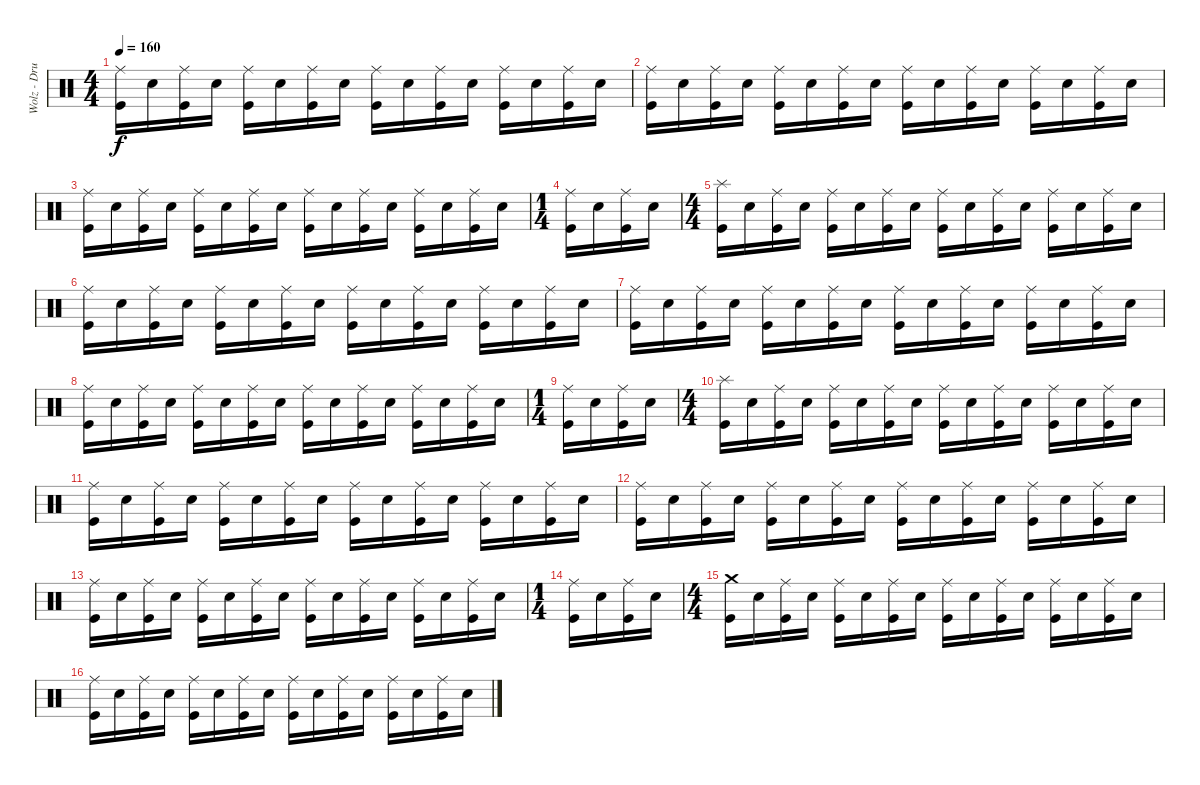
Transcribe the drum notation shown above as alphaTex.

\track ("Wolz - Drums" "Wolz - Dru") {instrument percussion}
\staff {score}
\articulation defaults
\ts (4 4)
\tempo 160
\clef neutral
\ks c
("Ride (middle)" "Kick (hit)").16{dy f} "Electric Snare (hit)".16 ("Ride (middle)" "Kick (hit)").16 "Electric Snare (hit)".16 ("Ride (middle)" "Kick (hit)").16 "Electric Snare (hit)".16 ("Ride (middle)" "Kick (hit)").16 "Electric Snare (hit)".16 ("Ride (middle)" "Kick (hit)").16 "Electric Snare (hit)".16 ("Ride (middle)" "Kick (hit)").16 "Electric Snare (hit)".16 ("Ride (middle)" "Kick (hit)").16 "Electric Snare (hit)".16 ("Ride (middle)" "Kick (hit)").16 "Electric Snare (hit)".16 |
("Ride (middle)" "Kick (hit)").16 "Electric Snare (hit)".16 ("Ride (middle)" "Kick (hit)").16 "Electric Snare (hit)".16 ("Ride (middle)" "Kick (hit)").16 "Electric Snare (hit)".16 ("Ride (middle)" "Kick (hit)").16 "Electric Snare (hit)".16 ("Ride (middle)" "Kick (hit)").16 "Electric Snare (hit)".16 ("Ride (middle)" "Kick (hit)").16 "Electric Snare (hit)".16 ("Ride (middle)" "Kick (hit)").16 "Electric Snare (hit)".16 ("Ride (middle)" "Kick (hit)").16 "Electric Snare (hit)".16 |
("Ride (middle)" "Kick (hit)").16 "Electric Snare (hit)".16 ("Ride (middle)" "Kick (hit)").16 "Electric Snare (hit)".16 ("Ride (middle)" "Kick (hit)").16 "Electric Snare (hit)".16 ("Ride (middle)" "Kick (hit)").16 "Electric Snare (hit)".16 ("Ride (middle)" "Kick (hit)").16 "Electric Snare (hit)".16 ("Ride (middle)" "Kick (hit)").16 "Electric Snare (hit)".16 ("Ride (middle)" "Kick (hit)").16 "Electric Snare (hit)".16 ("Ride (middle)" "Kick (hit)").16 "Electric Snare (hit)".16 |
\ts (1 4)
("Ride (middle)" "Kick (hit)").16 "Electric Snare (hit)".16 ("Ride (middle)" "Kick (hit)").16 "Electric Snare (hit)".16 |
\ts (4 4)
("Splash (hit)" "Kick (hit)").16 "Electric Snare (hit)".16 ("Ride (middle)" "Kick (hit)").16 "Electric Snare (hit)".16 ("Ride (middle)" "Kick (hit)").16 "Electric Snare (hit)".16 ("Ride (middle)" "Kick (hit)").16 "Electric Snare (hit)".16 ("Ride (middle)" "Kick (hit)").16 "Electric Snare (hit)".16 ("Ride (middle)" "Kick (hit)").16 "Electric Snare (hit)".16 ("Ride (middle)" "Kick (hit)").16 "Electric Snare (hit)".16 ("Ride (middle)" "Kick (hit)").16 "Electric Snare (hit)".16 |
("Ride (middle)" "Kick (hit)").16 "Electric Snare (hit)".16 ("Ride (middle)" "Kick (hit)").16 "Electric Snare (hit)".16 ("Ride (middle)" "Kick (hit)").16 "Electric Snare (hit)".16 ("Ride (middle)" "Kick (hit)").16 "Electric Snare (hit)".16 ("Ride (middle)" "Kick (hit)").16 "Electric Snare (hit)".16 ("Ride (middle)" "Kick (hit)").16 "Electric Snare (hit)".16 ("Ride (middle)" "Kick (hit)").16 "Electric Snare (hit)".16 ("Ride (middle)" "Kick (hit)").16 "Electric Snare (hit)".16 |
("Ride (middle)" "Kick (hit)").16 "Electric Snare (hit)".16 ("Ride (middle)" "Kick (hit)").16 "Electric Snare (hit)".16 ("Ride (middle)" "Kick (hit)").16 "Electric Snare (hit)".16 ("Ride (middle)" "Kick (hit)").16 "Electric Snare (hit)".16 ("Ride (middle)" "Kick (hit)").16 "Electric Snare (hit)".16 ("Ride (middle)" "Kick (hit)").16 "Electric Snare (hit)".16 ("Ride (middle)" "Kick (hit)").16 "Electric Snare (hit)".16 ("Ride (middle)" "Kick (hit)").16 "Electric Snare (hit)".16 |
("Ride (middle)" "Kick (hit)").16 "Electric Snare (hit)".16 ("Ride (middle)" "Kick (hit)").16 "Electric Snare (hit)".16 ("Ride (middle)" "Kick (hit)").16 "Electric Snare (hit)".16 ("Ride (middle)" "Kick (hit)").16 "Electric Snare (hit)".16 ("Ride (middle)" "Kick (hit)").16 "Electric Snare (hit)".16 ("Ride (middle)" "Kick (hit)").16 "Electric Snare (hit)".16 ("Ride (middle)" "Kick (hit)").16 "Electric Snare (hit)".16 ("Ride (middle)" "Kick (hit)").16 "Electric Snare (hit)".16 |
\ts (1 4)
("Ride (middle)" "Kick (hit)").16 "Electric Snare (hit)".16 ("Ride (middle)" "Kick (hit)").16 "Electric Snare (hit)".16 |
\ts (4 4)
("Splash (hit)" "Kick (hit)").16 "Electric Snare (hit)".16 ("Ride (middle)" "Kick (hit)").16 "Electric Snare (hit)".16 ("Ride (middle)" "Kick (hit)").16 "Electric Snare (hit)".16 ("Ride (middle)" "Kick (hit)").16 "Electric Snare (hit)".16 ("Ride (middle)" "Kick (hit)").16 "Electric Snare (hit)".16 ("Ride (middle)" "Kick (hit)").16 "Electric Snare (hit)".16 ("Ride (middle)" "Kick (hit)").16 "Electric Snare (hit)".16 ("Ride (middle)" "Kick (hit)").16 "Electric Snare (hit)".16 |
("Ride (middle)" "Kick (hit)").16 "Electric Snare (hit)".16 ("Ride (middle)" "Kick (hit)").16 "Electric Snare (hit)".16 ("Ride (middle)" "Kick (hit)").16 "Electric Snare (hit)".16 ("Ride (middle)" "Kick (hit)").16 "Electric Snare (hit)".16 ("Ride (middle)" "Kick (hit)").16 "Electric Snare (hit)".16 ("Ride (middle)" "Kick (hit)").16 "Electric Snare (hit)".16 ("Ride (middle)" "Kick (hit)").16 "Electric Snare (hit)".16 ("Ride (middle)" "Kick (hit)").16 "Electric Snare (hit)".16 |
("Ride (middle)" "Kick (hit)").16 "Electric Snare (hit)".16 ("Ride (middle)" "Kick (hit)").16 "Electric Snare (hit)".16 ("Ride (middle)" "Kick (hit)").16 "Electric Snare (hit)".16 ("Ride (middle)" "Kick (hit)").16 "Electric Snare (hit)".16 ("Ride (middle)" "Kick (hit)").16 "Electric Snare (hit)".16 ("Ride (middle)" "Kick (hit)").16 "Electric Snare (hit)".16 ("Ride (middle)" "Kick (hit)").16 "Electric Snare (hit)".16 ("Ride (middle)" "Kick (hit)").16 "Electric Snare (hit)".16 |
("Ride (middle)" "Kick (hit)").16 "Electric Snare (hit)".16 ("Ride (middle)" "Kick (hit)").16 "Electric Snare (hit)".16 ("Ride (middle)" "Kick (hit)").16 "Electric Snare (hit)".16 ("Ride (middle)" "Kick (hit)").16 "Electric Snare (hit)".16 ("Ride (middle)" "Kick (hit)").16 "Electric Snare (hit)".16 ("Ride (middle)" "Kick (hit)").16 "Electric Snare (hit)".16 ("Ride (middle)" "Kick (hit)").16 "Electric Snare (hit)".16 ("Ride (middle)" "Kick (hit)").16 "Electric Snare (hit)".16 |
\ts (1 4)
("Ride (middle)" "Kick (hit)").16 "Electric Snare (hit)".16 ("Ride (middle)" "Kick (hit)").16 "Electric Snare (hit)".16 |
\ts (4 4)
("Crash medium (hit)" "Kick (hit)").16 "Electric Snare (hit)".16 ("Ride (middle)" "Kick (hit)").16 "Electric Snare (hit)".16 ("Ride (middle)" "Kick (hit)").16 "Electric Snare (hit)".16 ("Ride (middle)" "Kick (hit)").16 "Electric Snare (hit)".16 ("Ride (middle)" "Kick (hit)").16 "Electric Snare (hit)".16 ("Ride (middle)" "Kick (hit)").16 "Electric Snare (hit)".16 ("Ride (middle)" "Kick (hit)").16 "Electric Snare (hit)".16 ("Ride (middle)" "Kick (hit)").16 "Electric Snare (hit)".16 |
("Ride (middle)" "Kick (hit)").16 "Electric Snare (hit)".16 ("Ride (middle)" "Kick (hit)").16 "Electric Snare (hit)".16 ("Ride (middle)" "Kick (hit)").16 "Electric Snare (hit)".16 ("Ride (middle)" "Kick (hit)").16 "Electric Snare (hit)".16 ("Ride (middle)" "Kick (hit)").16 "Electric Snare (hit)".16 ("Ride (middle)" "Kick (hit)").16 "Electric Snare (hit)".16 ("Ride (middle)" "Kick (hit)").16 "Electric Snare (hit)".16 ("Ride (middle)" "Kick (hit)").16 "Electric Snare (hit)".16
